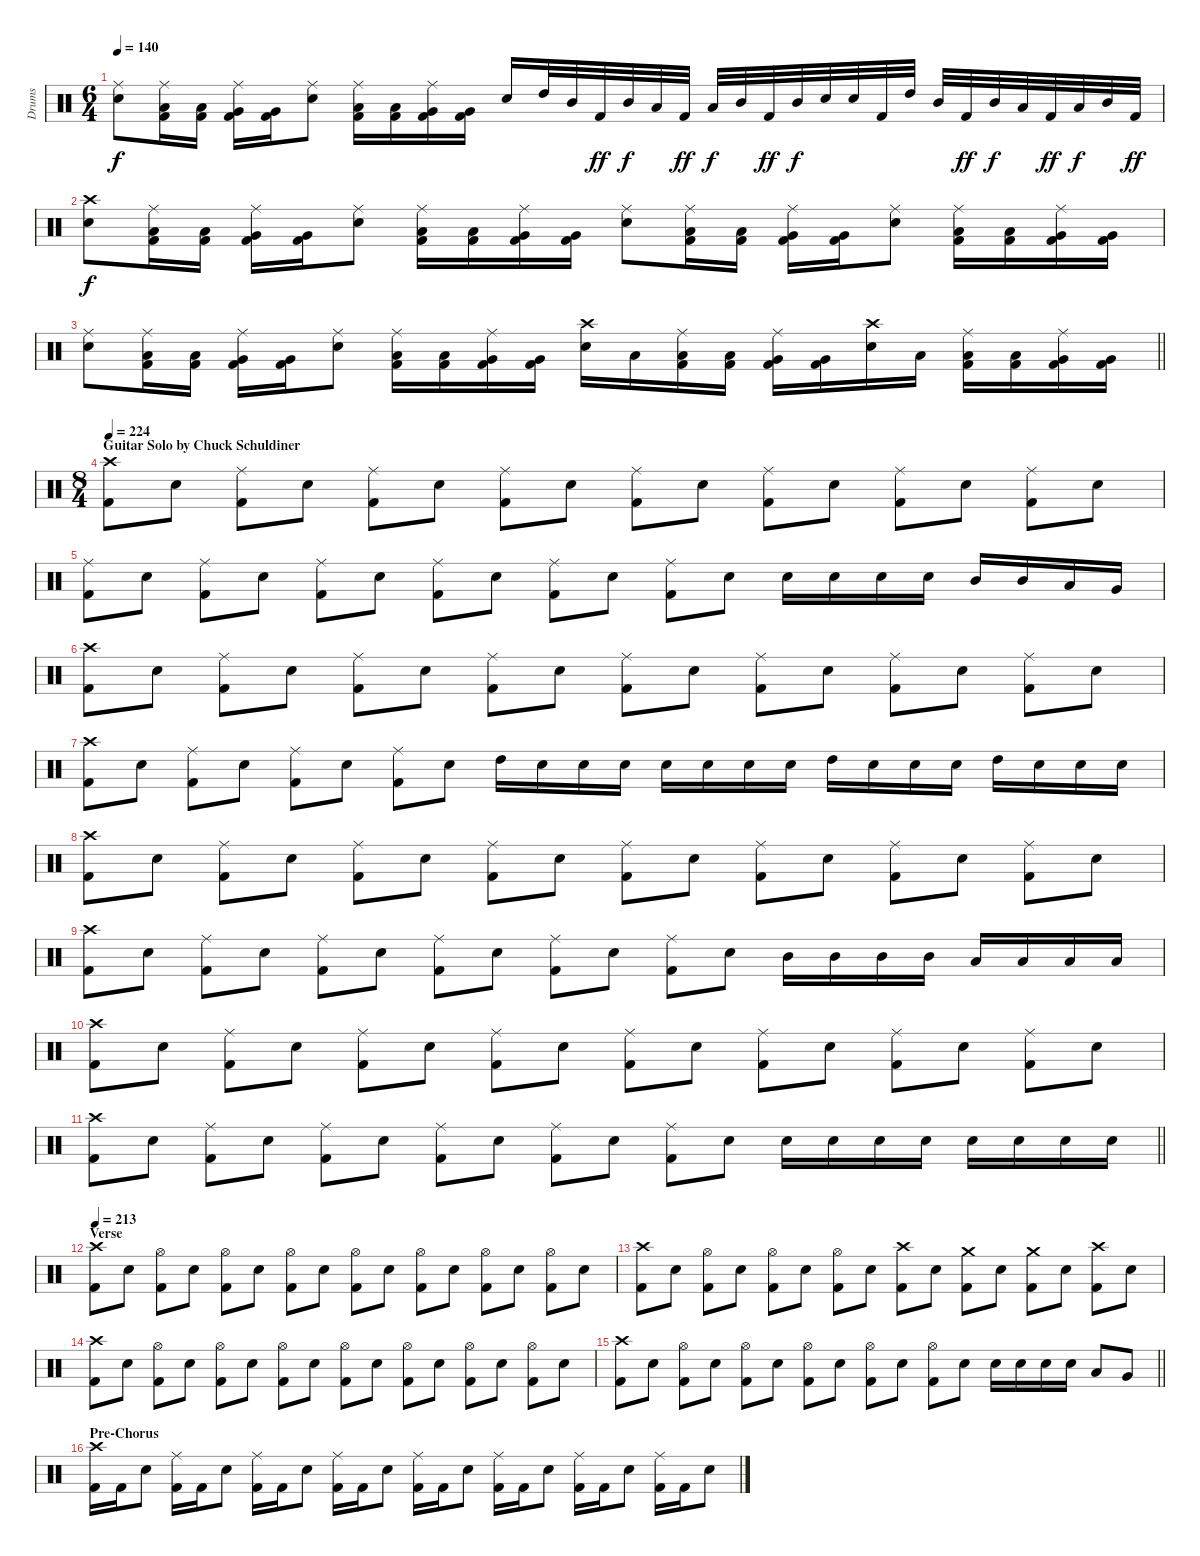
\track ("Drums" "Drums") {instrument percussion}
\staff {score}
\articulation defaults
\ts (6 4)
\tempo 140
\clef neutral
\ks c
("Ride (middle)" "Snare (hit) 2").8{dy f} ("Ride (middle)" "Low Tom (hit)" "Kick (hit) 2").16 ("Low Tom (hit)" "Kick (hit) 2").16 ("Ride (middle)" "Very Low Tom (hit)" "Kick (hit) 2").16 ("Very Low Tom (hit)" "Kick (hit) 2").16 ("Ride (middle)" "Snare (hit) 2").8 ("Ride (middle)" "Low Tom (hit)" "Kick (hit) 2").16 ("Low Tom (hit)" "Kick (hit) 2").16 ("Ride (middle)" "Very Low Tom (hit)" "Kick (hit) 2").16 ("Very Low Tom (hit)" "Kick (hit) 2").16 "Snare (hit) 2".16 "High Tom (hit)".32 "Mid Tom (hit)".32 "Kick (hit) 2".32{dy ff} "Mid Tom (hit)".32{dy f} "Low Tom (hit)".32 "Kick (hit) 2".32{dy ff} "Low Tom (hit)".32{dy f} "Mid Tom (hit)".32 "Kick (hit) 2".32{dy ff} "Mid Tom (hit)".32{dy f} "Snare (hit) 2".32 "Snare (hit) 2".32 "Kick (hit) 2".32 "High Tom (hit)".32 "Mid Tom (hit)".32 "Kick (hit) 2".32{dy ff} "Mid Tom (hit)".32{dy f} "Low Tom (hit)".32 "Kick (hit) 2".32{dy ff} "Low Tom (hit)".32{dy f} "Mid Tom (hit)".32 "Kick (hit) 2".32{dy ff} |
("Crash high (hit)" "Snare (hit) 2").8{dy f} ("Ride (middle)" "Low Tom (hit)" "Kick (hit) 2").16 ("Low Tom (hit)" "Kick (hit) 2").16 ("Ride (middle)" "Very Low Tom (hit)" "Kick (hit) 2").16 ("Very Low Tom (hit)" "Kick (hit) 2").16 ("Ride (middle)" "Snare (hit) 2").8 ("Ride (middle)" "Low Tom (hit)" "Kick (hit) 2").16 ("Low Tom (hit)" "Kick (hit) 2").16 ("Ride (middle)" "Very Low Tom (hit)" "Kick (hit) 2").16 ("Very Low Tom (hit)" "Kick (hit) 2").16 ("Ride (middle)" "Snare (hit) 2").8 ("Ride (middle)" "Low Tom (hit)" "Kick (hit) 2").16 ("Low Tom (hit)" "Kick (hit) 2").16 ("Ride (middle)" "Very Low Tom (hit)" "Kick (hit) 2").16 ("Very Low Tom (hit)" "Kick (hit) 2").16 ("Ride (middle)" "Snare (hit) 2").8 ("Ride (middle)" "Low Tom (hit)" "Kick (hit) 2").16 ("Low Tom (hit)" "Kick (hit) 2").16 ("Ride (middle)" "Very Low Tom (hit)" "Kick (hit) 2").16 ("Very Low Tom (hit)" "Kick (hit) 2").16 |
\barLineRight lightlight
("Ride (middle)" "Snare (hit) 2").8 ("Ride (middle)" "Low Tom (hit)" "Kick (hit) 2").16 ("Low Tom (hit)" "Kick (hit) 2").16 ("Ride (middle)" "Very Low Tom (hit)" "Kick (hit) 2").16 ("Very Low Tom (hit)" "Kick (hit) 2").16 ("Ride (middle)" "Snare (hit) 2").8 ("Ride (middle)" "Low Tom (hit)" "Kick (hit) 2").16 ("Low Tom (hit)" "Kick (hit) 2").16 ("Ride (middle)" "Very Low Tom (hit)" "Kick (hit) 2").16 ("Very Low Tom (hit)" "Kick (hit) 2").16 ("Crash high (hit)" "Snare (hit) 2").16 "Low Tom (hit)".16 ("Ride (middle)" "Low Tom (hit)" "Kick (hit) 2").16 ("Low Tom (hit)" "Kick (hit) 2").16 ("Ride (middle)" "Very Low Tom (hit)" "Kick (hit) 2").16 ("Very Low Tom (hit)" "Kick (hit) 2").16 ("Crash high (hit)" "Snare (hit) 2").16 "Low Tom (hit)".16 ("Ride (middle)" "Low Tom (hit)" "Kick (hit) 2").16 ("Low Tom (hit)" "Kick (hit) 2").16 ("Ride (middle)" "Very Low Tom (hit)" "Kick (hit) 2").16 ("Very Low Tom (hit)" "Kick (hit) 2").16 |
\ts (8 4)
\section ("" "Guitar Solo by Chuck Schuldiner")
\tempo 224
("Crash high (hit)" "Kick (hit) 2").8 "Snare (hit) 2".8 ("Ride (middle)" "Kick (hit) 2").8 "Snare (hit) 2".8 ("Ride (middle)" "Kick (hit) 2").8 "Snare (hit) 2".8 ("Ride (middle)" "Kick (hit) 2").8 "Snare (hit) 2".8 ("Ride (middle)" "Kick (hit) 2").8 "Snare (hit) 2".8 ("Ride (middle)" "Kick (hit) 2").8 "Snare (hit) 2".8 ("Ride (middle)" "Kick (hit) 2").8 "Snare (hit) 2".8 ("Ride (middle)" "Kick (hit) 2").8 "Snare (hit) 2".8 |
("Ride (middle)" "Kick (hit) 2").8 "Snare (hit) 2".8 ("Ride (middle)" "Kick (hit) 2").8 "Snare (hit) 2".8 ("Ride (middle)" "Kick (hit) 2").8 "Snare (hit) 2".8 ("Ride (middle)" "Kick (hit) 2").8 "Snare (hit) 2".8 ("Ride (middle)" "Kick (hit) 2").8 "Snare (hit) 2".8 ("Ride (middle)" "Kick (hit) 2").8 "Snare (hit) 2".8 "Snare (hit) 2".16 "Snare (hit) 2".16 "Snare (hit) 2".16 "Snare (hit) 2".16 "Mid Tom (hit)".16 "Mid Tom (hit)".16 "Low Tom (hit)".16 "Very Low Tom (hit)".16 |
("Crash high (hit)" "Kick (hit) 2").8 "Snare (hit) 2".8 ("Ride (middle)" "Kick (hit) 2").8 "Snare (hit) 2".8 ("Ride (middle)" "Kick (hit) 2").8 "Snare (hit) 2".8 ("Ride (middle)" "Kick (hit) 2").8 "Snare (hit) 2".8 ("Ride (middle)" "Kick (hit) 2").8 "Snare (hit) 2".8 ("Ride (middle)" "Kick (hit) 2").8 "Snare (hit) 2".8 ("Ride (middle)" "Kick (hit) 2").8 "Snare (hit) 2".8 ("Ride (middle)" "Kick (hit) 2").8 "Snare (hit) 2".8 |
("Crash high (hit)" "Kick (hit) 2").8 "Snare (hit) 2".8 ("Ride (middle)" "Kick (hit) 2").8 "Snare (hit) 2".8 ("Ride (middle)" "Kick (hit) 2").8 "Snare (hit) 2".8 ("Ride (middle)" "Kick (hit) 2").8 "Snare (hit) 2".8 "High Tom (hit)".16 "Snare (hit) 2".16 "Snare (hit) 2".16 "Snare (hit) 2".16 "Snare (hit) 2".16 "Snare (hit) 2".16 "Snare (hit) 2".16 "Snare (hit) 2".16 "High Tom (hit)".16 "Snare (hit) 2".16 "Snare (hit) 2".16 "Snare (hit) 2".16 "High Tom (hit)".16 "Snare (hit) 2".16 "Snare (hit) 2".16 "Snare (hit) 2".16 |
("Crash high (hit)" "Kick (hit) 2").8 "Snare (hit) 2".8 ("Ride (middle)" "Kick (hit) 2").8 "Snare (hit) 2".8 ("Ride (middle)" "Kick (hit) 2").8 "Snare (hit) 2".8 ("Ride (middle)" "Kick (hit) 2").8 "Snare (hit) 2".8 ("Ride (middle)" "Kick (hit) 2").8 "Snare (hit) 2".8 ("Ride (middle)" "Kick (hit) 2").8 "Snare (hit) 2".8 ("Ride (middle)" "Kick (hit) 2").8 "Snare (hit) 2".8 ("Ride (middle)" "Kick (hit) 2").8 "Snare (hit) 2".8 |
("Crash high (hit)" "Kick (hit) 2").8 "Snare (hit) 2".8 ("Ride (middle)" "Kick (hit) 2").8 "Snare (hit) 2".8 ("Ride (middle)" "Kick (hit) 2").8 "Snare (hit) 2".8 ("Ride (middle)" "Kick (hit) 2").8 "Snare (hit) 2".8 ("Ride (middle)" "Kick (hit) 2").8 "Snare (hit) 2".8 ("Ride (middle)" "Kick (hit) 2").8 "Snare (hit) 2".8 "Mid Tom (hit)".16 "Mid Tom (hit)".16 "Mid Tom (hit)".16 "Mid Tom (hit)".16 "Low Tom (hit)".16 "Low Tom (hit)".16 "Low Tom (hit)".16 "Low Tom (hit)".16 |
("Crash high (hit)" "Kick (hit) 2").8 "Snare (hit) 2".8 ("Ride (middle)" "Kick (hit) 2").8 "Snare (hit) 2".8 ("Ride (middle)" "Kick (hit) 2").8 "Snare (hit) 2".8 ("Ride (middle)" "Kick (hit) 2").8 "Snare (hit) 2".8 ("Ride (middle)" "Kick (hit) 2").8 "Snare (hit) 2".8 ("Ride (middle)" "Kick (hit) 2").8 "Snare (hit) 2".8 ("Ride (middle)" "Kick (hit) 2").8 "Snare (hit) 2".8 ("Ride (middle)" "Kick (hit) 2").8 "Snare (hit) 2".8 |
\barLineRight lightlight
("Crash high (hit)" "Kick (hit) 2").8 "Snare (hit) 2".8 ("Ride (middle)" "Kick (hit) 2").8 "Snare (hit) 2".8 ("Ride (middle)" "Kick (hit) 2").8 "Snare (hit) 2".8 ("Ride (middle)" "Kick (hit) 2").8 "Snare (hit) 2".8 ("Ride (middle)" "Kick (hit) 2").8 "Snare (hit) 2".8 ("Ride (middle)" "Kick (hit) 2").8 "Snare (hit) 2".8 "Snare (hit) 2".16 "Snare (hit) 2".16 "Snare (hit) 2".16 "Snare (hit) 2".16 "Snare (hit) 2".16 "Snare (hit) 2".16 "Snare (hit) 2".16 "Snare (hit) 2".16 |
\section ("" "Verse")
\tempo 213
("Crash high (hit)" "Kick (hit) 2").8 "Snare (hit) 2".8 ("Hi-Hat (open)" "Kick (hit) 2").8 "Snare (hit) 2".8 ("Hi-Hat (open)" "Kick (hit) 2").8 "Snare (hit) 2".8 ("Hi-Hat (open)" "Kick (hit) 2").8 "Snare (hit) 2".8 ("Hi-Hat (open)" "Kick (hit) 2").8 "Snare (hit) 2".8 ("Hi-Hat (open)" "Kick (hit) 2").8 "Snare (hit) 2".8 ("Hi-Hat (open)" "Kick (hit) 2").8 "Snare (hit) 2".8 ("Hi-Hat (open)" "Kick (hit) 2").8 "Snare (hit) 2".8 |
("Crash high (hit)" "Kick (hit) 2").8 "Snare (hit) 2".8 ("Hi-Hat (open)" "Kick (hit) 2").8 "Snare (hit) 2".8 ("Hi-Hat (open)" "Kick (hit) 2").8 "Snare (hit) 2".8 ("Hi-Hat (open)" "Kick (hit) 2").8 "Snare (hit) 2".8 ("Crash high (hit)" "Kick (hit) 2").8 "Snare (hit) 2".8 ("Crash medium (hit)" "Kick (hit) 2").8 "Snare (hit) 2".8 ("Crash medium (hit)" "Kick (hit) 2").8 "Snare (hit) 2".8 ("Crash high (hit)" "Kick (hit) 2").8 "Snare (hit) 2".8 |
("Crash high (hit)" "Kick (hit) 2").8 "Snare (hit) 2".8 ("Hi-Hat (open)" "Kick (hit) 2").8 "Snare (hit) 2".8 ("Hi-Hat (open)" "Kick (hit) 2").8 "Snare (hit) 2".8 ("Hi-Hat (open)" "Kick (hit) 2").8 "Snare (hit) 2".8 ("Hi-Hat (open)" "Kick (hit) 2").8 "Snare (hit) 2".8 ("Hi-Hat (open)" "Kick (hit) 2").8 "Snare (hit) 2".8 ("Hi-Hat (open)" "Kick (hit) 2").8 "Snare (hit) 2".8 ("Hi-Hat (open)" "Kick (hit) 2").8 "Snare (hit) 2".8 |
\barLineRight lightlight
("Crash high (hit)" "Kick (hit) 2").8 "Snare (hit) 2".8 ("Hi-Hat (open)" "Kick (hit) 2").8 "Snare (hit) 2".8 ("Hi-Hat (open)" "Kick (hit) 2").8 "Snare (hit) 2".8 ("Hi-Hat (open)" "Kick (hit) 2").8 "Snare (hit) 2".8 ("Hi-Hat (open)" "Kick (hit) 2").8 "Snare (hit) 2".8 ("Hi-Hat (open)" "Kick (hit) 2").8 "Snare (hit) 2".8 "Snare (hit) 2".16 "Snare (hit) 2".16 "Snare (hit) 2".16 "Snare (hit) 2".16 "Low Tom (hit)".8 "Very Low Tom (hit)".8 |
\section ("" "Pre-Chorus")
("Crash high (hit)" "Kick (hit) 2").16 "Kick (hit) 2".16 "Snare (hit) 2".8 ("Ride (middle)" "Kick (hit) 2").16 "Kick (hit) 2".16 "Snare (hit) 2".8 ("Ride (middle)" "Kick (hit) 2").16 "Kick (hit) 2".16 "Snare (hit) 2".8 ("Ride (middle)" "Kick (hit) 2").16 "Kick (hit) 2".16 "Snare (hit) 2".8 ("Ride (middle)" "Kick (hit) 2").16 "Kick (hit) 2".16 "Snare (hit) 2".8 ("Ride (middle)" "Kick (hit) 2").16 "Kick (hit) 2".16 "Snare (hit) 2".8 ("Ride (middle)" "Kick (hit) 2").16 "Kick (hit) 2".16 "Snare (hit) 2".8 ("Ride (middle)" "Kick (hit) 2").16 "Kick (hit) 2".16 "Snare (hit) 2".8
